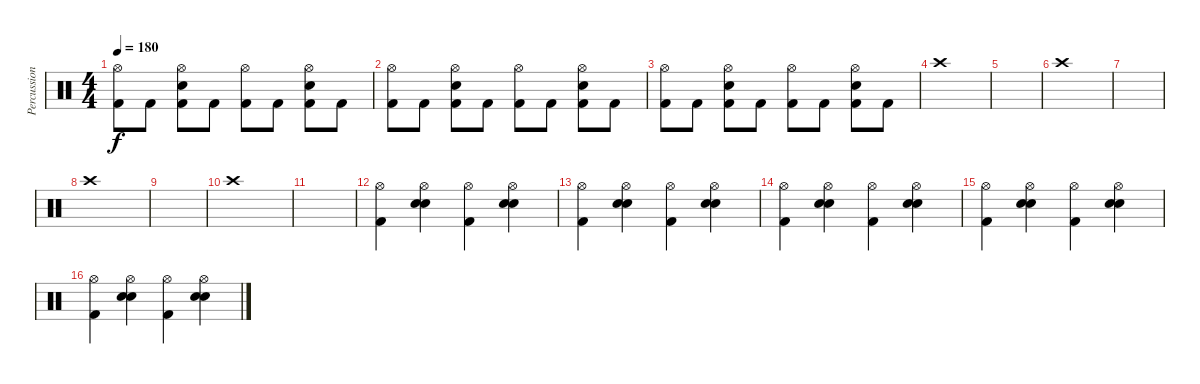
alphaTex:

\track ("Percussion" "Percussion") {instrument percussion}
\staff {score}
\articulation defaults
\ts (4 4)
\tempo 180
\clef neutral
\ks c
("Hi-Hat (open)" "Kick (hit) 2").8{dy f} "Kick (hit) 2".8 ("Hi-Hat (open)" "Snare (hit) 2" "Kick (hit) 2").8 "Kick (hit) 2".8 ("Hi-Hat (open)" "Kick (hit) 2").8 "Kick (hit) 2".8 ("Hi-Hat (open)" "Snare (hit) 2" "Kick (hit) 2").8 "Kick (hit) 2".8 |
("Hi-Hat (open)" "Kick (hit) 2").8 "Kick (hit) 2".8 ("Hi-Hat (open)" "Snare (hit) 2" "Kick (hit) 2").8 "Kick (hit) 2".8 ("Hi-Hat (open)" "Kick (hit) 2").8 "Kick (hit) 2".8 ("Hi-Hat (open)" "Snare (hit) 2" "Kick (hit) 2").8 "Kick (hit) 2".8 |
("Hi-Hat (open)" "Kick (hit) 2").8 "Kick (hit) 2".8 ("Hi-Hat (open)" "Snare (hit) 2" "Kick (hit) 2").8 "Kick (hit) 2".8 ("Hi-Hat (open)" "Kick (hit) 2").8 "Kick (hit) 2".8 ("Hi-Hat (open)" "Snare (hit) 2" "Kick (hit) 2").8 "Kick (hit) 2".8 |
"Crash high (hit)".1 |
|
"Crash high (hit)".1 |
|
"Crash high (hit)".1 |
|
"Crash high (hit)".1 |
|
("Hi-Hat (open)" "Kick (hit) 2").4 ("Hi-Hat (open)" "Snare (hit) 2" "Snare (hit) 2").4 ("Hi-Hat (open)" "Kick (hit) 2").4 ("Hi-Hat (open)" "Snare (hit) 2" "Snare (hit) 2").4 |
("Hi-Hat (open)" "Kick (hit) 2").4 ("Hi-Hat (open)" "Snare (hit) 2" "Snare (hit) 2").4 ("Hi-Hat (open)" "Kick (hit) 2").4 ("Hi-Hat (open)" "Snare (hit) 2" "Snare (hit) 2").4 |
("Hi-Hat (open)" "Kick (hit) 2").4 ("Hi-Hat (open)" "Snare (hit) 2" "Snare (hit) 2").4 ("Hi-Hat (open)" "Kick (hit) 2").4 ("Hi-Hat (open)" "Snare (hit) 2" "Snare (hit) 2").4 |
("Hi-Hat (open)" "Kick (hit) 2").4 ("Hi-Hat (open)" "Snare (hit) 2" "Snare (hit) 2").4 ("Hi-Hat (open)" "Kick (hit) 2").4 ("Hi-Hat (open)" "Snare (hit) 2" "Snare (hit) 2").4 |
("Hi-Hat (open)" "Kick (hit) 2").4 ("Hi-Hat (open)" "Snare (hit) 2" "Snare (hit) 2").4 ("Hi-Hat (open)" "Kick (hit) 2").4 ("Hi-Hat (open)" "Snare (hit) 2" "Snare (hit) 2").4
